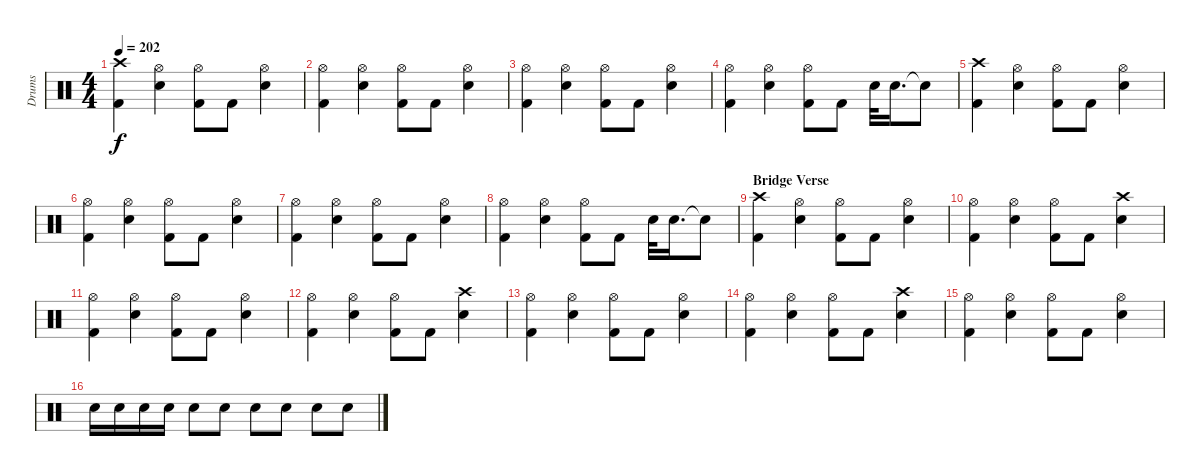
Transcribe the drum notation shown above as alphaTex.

\track ("Drums" "Drums") {instrument percussion}
\staff {score}
\articulation defaults
\ts (4 4)
\tempo 202
\clef neutral
\ks c
("Crash high (hit)" "Kick (hit) 2").4{dy f} ("Hi-Hat (open)" "Electric Snare (hit)").4 ("Hi-Hat (open)" "Kick (hit) 2").8 "Kick (hit) 2".8 ("Hi-Hat (open)" "Electric Snare (hit)").4 |
("Hi-Hat (open)" "Kick (hit) 2").4 ("Hi-Hat (open)" "Electric Snare (hit)").4 ("Hi-Hat (open)" "Kick (hit) 2").8 "Kick (hit) 2".8 ("Hi-Hat (open)" "Electric Snare (hit)").4 |
("Hi-Hat (open)" "Kick (hit) 2").4 ("Hi-Hat (open)" "Electric Snare (hit)").4 ("Hi-Hat (open)" "Kick (hit) 2").8 "Kick (hit) 2".8 ("Hi-Hat (open)" "Electric Snare (hit)").4 |
("Hi-Hat (open)" "Kick (hit) 2").4 ("Hi-Hat (open)" "Electric Snare (hit)").4 ("Hi-Hat (open)" "Kick (hit) 2").8 "Kick (hit) 2".8 "Electric Snare (hit)".32 "Electric Snare (hit)".16{d} "Electric Snare (hit)"{t}.8 |
("Crash high (hit)" "Kick (hit) 2").4 ("Hi-Hat (open)" "Electric Snare (hit)").4 ("Hi-Hat (open)" "Kick (hit) 2").8 "Kick (hit) 2".8 ("Hi-Hat (open)" "Electric Snare (hit)").4 |
("Hi-Hat (open)" "Kick (hit) 2").4 ("Hi-Hat (open)" "Electric Snare (hit)").4 ("Hi-Hat (open)" "Kick (hit) 2").8 "Kick (hit) 2".8 ("Hi-Hat (open)" "Electric Snare (hit)").4 |
("Hi-Hat (open)" "Kick (hit) 2").4 ("Hi-Hat (open)" "Electric Snare (hit)").4 ("Hi-Hat (open)" "Kick (hit) 2").8 "Kick (hit) 2".8 ("Hi-Hat (open)" "Electric Snare (hit)").4 |
("Hi-Hat (open)" "Kick (hit) 2").4 ("Hi-Hat (open)" "Electric Snare (hit)").4 ("Hi-Hat (open)" "Kick (hit) 2").8 "Kick (hit) 2".8 "Electric Snare (hit)".32 "Electric Snare (hit)".16{d} "Electric Snare (hit)"{t}.8 |
\section ("" "Bridge Verse")
("Crash high (hit)" "Kick (hit) 2").4 ("Hi-Hat (open)" "Electric Snare (hit)").4 ("Hi-Hat (open)" "Kick (hit) 2").8 "Kick (hit) 2".8 ("Hi-Hat (open)" "Electric Snare (hit)").4 |
("Hi-Hat (open)" "Kick (hit) 2").4 ("Hi-Hat (open)" "Electric Snare (hit)").4 ("Hi-Hat (open)" "Kick (hit) 2").8 "Kick (hit) 2".8 ("Crash high (hit)" "Electric Snare (hit)").4 |
("Hi-Hat (open)" "Kick (hit) 2").4 ("Hi-Hat (open)" "Electric Snare (hit)").4 ("Hi-Hat (open)" "Kick (hit) 2").8 "Kick (hit) 2".8 ("Hi-Hat (open)" "Electric Snare (hit)").4 |
("Hi-Hat (open)" "Kick (hit) 2").4 ("Hi-Hat (open)" "Electric Snare (hit)").4 ("Hi-Hat (open)" "Kick (hit) 2").8 "Kick (hit) 2".8 ("Crash high (hit)" "Electric Snare (hit)").4 |
("Hi-Hat (open)" "Kick (hit) 2").4 ("Hi-Hat (open)" "Electric Snare (hit)").4 ("Hi-Hat (open)" "Kick (hit) 2").8 "Kick (hit) 2".8 ("Hi-Hat (open)" "Electric Snare (hit)").4 |
("Hi-Hat (open)" "Kick (hit) 2").4 ("Hi-Hat (open)" "Electric Snare (hit)").4 ("Hi-Hat (open)" "Kick (hit) 2").8 "Kick (hit) 2".8 ("Crash high (hit)" "Electric Snare (hit)").4 |
("Hi-Hat (open)" "Kick (hit) 2").4 ("Hi-Hat (open)" "Electric Snare (hit)").4 ("Hi-Hat (open)" "Kick (hit) 2").8 "Kick (hit) 2".8 ("Hi-Hat (open)" "Electric Snare (hit)").4 |
"Electric Snare (hit)".16 "Electric Snare (hit)".16 "Electric Snare (hit)".16 "Electric Snare (hit)".16 "Electric Snare (hit)".8 "Electric Snare (hit)".8 "Electric Snare (hit)".8 "Electric Snare (hit)".8 "Electric Snare (hit)".8 "Electric Snare (hit)".8
